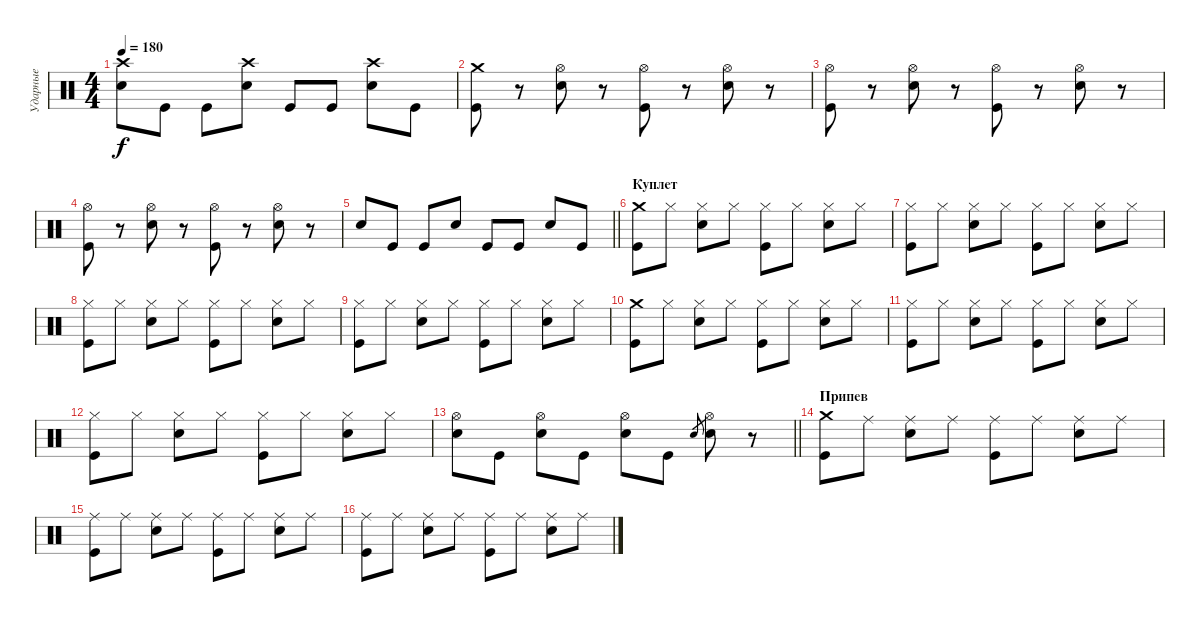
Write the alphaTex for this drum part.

\track ("Ударные" "Ударные") {instrument percussion}
\staff {score}
\articulation defaults
\ts (4 4)
\tempo 180
\clef neutral
\ks c
("Crash high (hit)" "Electric Snare (hit)").8{dy f} "Kick (hit)".8 "Kick (hit)".8 ("Crash high (hit)" "Electric Snare (hit)").8 "Kick (hit)".8 "Kick (hit)".8 ("Crash high (hit)" "Electric Snare (hit)").8 "Kick (hit)".8 |
("Crash medium (hit)" "Kick (hit)").8 r.8 ("Hi-Hat (open)" "Electric Snare (hit)").8 r.8 ("Hi-Hat (open)" "Kick (hit)").8 r.8 ("Hi-Hat (open)" "Electric Snare (hit)").8 r.8 |
("Hi-Hat (open)" "Kick (hit)").8 r.8 ("Hi-Hat (open)" "Electric Snare (hit)").8 r.8 ("Hi-Hat (open)" "Kick (hit)").8 r.8 ("Hi-Hat (open)" "Electric Snare (hit)").8 r.8 |
("Hi-Hat (open)" "Kick (hit)").8 r.8 ("Hi-Hat (open)" "Electric Snare (hit)").8 r.8 ("Hi-Hat (open)" "Kick (hit)").8 r.8 ("Hi-Hat (open)" "Electric Snare (hit)").8 r.8 |
\barLineRight lightlight "Electric Snare (hit)".8 "Kick (hit)".8 "Kick (hit)".8 "Electric Snare (hit)".8 "Kick (hit)".8 "Kick (hit)".8 "Electric Snare (hit)".8 "Kick (hit)".8
|
\section ("" "Куплет")
("Crash medium (hit)" "Kick (hit)").8 "Hi-Hat (closed)".8 ("Hi-Hat (closed)" "Electric Snare (hit)").8 "Hi-Hat (closed)".8 ("Hi-Hat (closed)" "Kick (hit)").8 "Hi-Hat (closed)".8 ("Hi-Hat (closed)" "Electric Snare (hit)").8 "Hi-Hat (closed)".8 |
("Hi-Hat (closed)" "Kick (hit)").8 "Hi-Hat (closed)".8 ("Hi-Hat (closed)" "Electric Snare (hit)").8 "Hi-Hat (closed)".8 ("Hi-Hat (closed)" "Kick (hit)").8 "Hi-Hat (closed)".8 ("Hi-Hat (closed)" "Electric Snare (hit)").8 "Hi-Hat (closed)".8 |
("Hi-Hat (closed)" "Kick (hit)").8 "Hi-Hat (closed)".8 ("Hi-Hat (closed)" "Electric Snare (hit)").8 "Hi-Hat (closed)".8 ("Hi-Hat (closed)" "Kick (hit)").8 "Hi-Hat (closed)".8 ("Hi-Hat (closed)" "Electric Snare (hit)").8 "Hi-Hat (closed)".8 |
("Hi-Hat (closed)" "Kick (hit)").8 "Hi-Hat (closed)".8 ("Hi-Hat (closed)" "Electric Snare (hit)").8 "Hi-Hat (closed)".8 ("Hi-Hat (closed)" "Kick (hit)").8 "Hi-Hat (closed)".8 ("Hi-Hat (closed)" "Electric Snare (hit)").8 "Hi-Hat (closed)".8 |
("Crash medium (hit)" "Kick (hit)").8 "Hi-Hat (closed)".8 ("Hi-Hat (closed)" "Electric Snare (hit)").8 "Hi-Hat (closed)".8 ("Hi-Hat (closed)" "Kick (hit)").8 "Hi-Hat (closed)".8 ("Hi-Hat (closed)" "Electric Snare (hit)").8 "Hi-Hat (closed)".8 |
("Hi-Hat (closed)" "Kick (hit)").8 "Hi-Hat (closed)".8 ("Hi-Hat (closed)" "Electric Snare (hit)").8 "Hi-Hat (closed)".8 ("Hi-Hat (closed)" "Kick (hit)").8 "Hi-Hat (closed)".8 ("Hi-Hat (closed)" "Electric Snare (hit)").8 "Hi-Hat (closed)".8 |
("Hi-Hat (closed)" "Kick (hit)").8 "Hi-Hat (closed)".8 ("Hi-Hat (closed)" "Electric Snare (hit)").8 "Hi-Hat (closed)".8 ("Hi-Hat (closed)" "Kick (hit)").8 "Hi-Hat (closed)".8 ("Hi-Hat (closed)" "Electric Snare (hit)").8 "Hi-Hat (closed)".8 |
\barLineRight lightlight
("Hi-Hat (open)" "Electric Snare (hit)").8 "Kick (hit)".8 ("Hi-Hat (open)" "Electric Snare (hit)").8 "Kick (hit)".8 ("Hi-Hat (open)" "Electric Snare (hit)").8 "Kick (hit)".8 "Electric Snare (hit)".8{gr} ("Hi-Hat (open)" "Electric Snare (hit)").8 r.8 |
\section ("" "Припев")
("Crash medium (hit)" "Kick (hit)").8 "Ride (middle)".8 ("Ride (middle)" "Electric Snare (hit)").8 "Ride (middle)".8 ("Ride (middle)" "Kick (hit)").8 "Ride (middle)".8 ("Ride (middle)" "Electric Snare (hit)").8 "Ride (middle)".8 |
("Ride (middle)" "Kick (hit)").8 "Ride (middle)".8 ("Ride (middle)" "Electric Snare (hit)").8 "Ride (middle)".8 ("Ride (middle)" "Kick (hit)").8 "Ride (middle)".8 ("Ride (middle)" "Electric Snare (hit)").8 "Ride (middle)".8 |
("Ride (middle)" "Kick (hit)").8 "Ride (middle)".8 ("Ride (middle)" "Electric Snare (hit)").8 "Ride (middle)".8 ("Ride (middle)" "Kick (hit)").8 "Ride (middle)".8 ("Ride (middle)" "Electric Snare (hit)").8 "Ride (middle)".8
